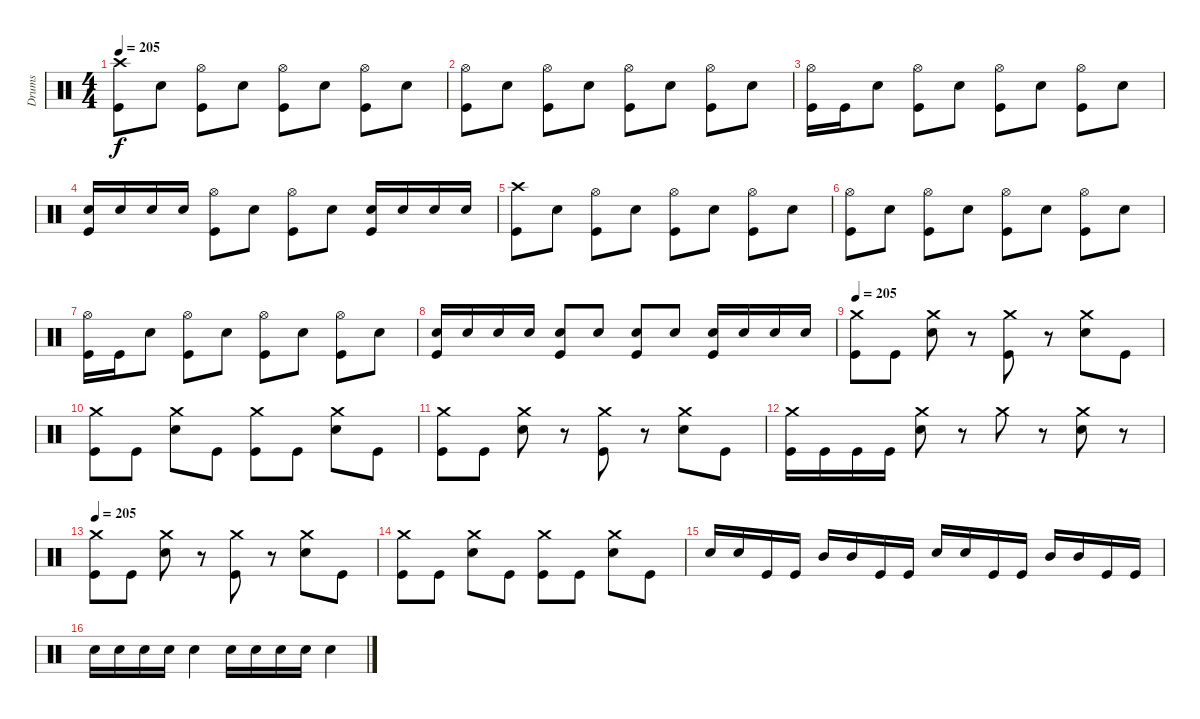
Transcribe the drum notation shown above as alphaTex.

\track ("Drums" "Drums") {instrument percussion}
\staff {score}
\articulation defaults
\ts (4 4)
\tempo 200
\tempo 205
\clef neutral
\ks c
("Crash high (hit)" "Kick (hit)").8{dy f} "Electric Snare (hit)".8 ("Hi-Hat (open)" "Kick (hit)").8 "Electric Snare (hit)".8 ("Hi-Hat (open)" "Kick (hit)").8 "Electric Snare (hit)".8 ("Hi-Hat (open)" "Kick (hit)").8 "Electric Snare (hit)".8 |
("Hi-Hat (open)" "Kick (hit)").8 "Electric Snare (hit)".8 ("Hi-Hat (open)" "Kick (hit)").8 "Electric Snare (hit)".8 ("Hi-Hat (open)" "Kick (hit)").8 "Electric Snare (hit)".8 ("Hi-Hat (open)" "Kick (hit)").8 "Electric Snare (hit)".8 |
("Hi-Hat (open)" "Kick (hit)").16 "Kick (hit)".16 "Electric Snare (hit)".8 ("Hi-Hat (open)" "Kick (hit)").8 "Electric Snare (hit)".8 ("Hi-Hat (open)" "Kick (hit)").8 "Electric Snare (hit)".8 ("Hi-Hat (open)" "Kick (hit)").8 "Electric Snare (hit)".8 |
("Electric Snare (hit)" "Kick (hit)").16 "Electric Snare (hit)".16 "Electric Snare (hit)".16 "Electric Snare (hit)".16 ("Hi-Hat (open)" "Kick (hit)").8 "Electric Snare (hit)".8 ("Hi-Hat (open)" "Kick (hit)").8 "Electric Snare (hit)".8 ("Electric Snare (hit)" "Kick (hit)").16 "Electric Snare (hit)".16 "Electric Snare (hit)".16 "Electric Snare (hit)".16 |
("Crash high (hit)" "Kick (hit)").8 "Electric Snare (hit)".8 ("Hi-Hat (open)" "Kick (hit)").8 "Electric Snare (hit)".8 ("Hi-Hat (open)" "Kick (hit)").8 "Electric Snare (hit)".8 ("Hi-Hat (open)" "Kick (hit)").8 "Electric Snare (hit)".8 |
("Hi-Hat (open)" "Kick (hit)").8 "Electric Snare (hit)".8 ("Hi-Hat (open)" "Kick (hit)").8 "Electric Snare (hit)".8 ("Hi-Hat (open)" "Kick (hit)").8 "Electric Snare (hit)".8 ("Hi-Hat (open)" "Kick (hit)").8 "Electric Snare (hit)".8 |
("Hi-Hat (open)" "Kick (hit)").16 "Kick (hit)".16 "Electric Snare (hit)".8 ("Hi-Hat (open)" "Kick (hit)").8 "Electric Snare (hit)".8 ("Hi-Hat (open)" "Kick (hit)").8 "Electric Snare (hit)".8 ("Hi-Hat (open)" "Kick (hit)").8 "Electric Snare (hit)".8 |
("Electric Snare (hit)" "Kick (hit)").16 "Electric Snare (hit)".16 "Electric Snare (hit)".16 "Electric Snare (hit)".16 ("Electric Snare (hit)" "Kick (hit)").8 "Electric Snare (hit)".8 ("Electric Snare (hit)" "Kick (hit)").8 "Electric Snare (hit)".8 ("Electric Snare (hit)" "Kick (hit)").16 "Electric Snare (hit)".16 "Electric Snare (hit)".16 "Electric Snare (hit)".16 |
\tempo 205
("Crash medium (hit)" "Kick (hit)").8 "Kick (hit)".8 ("Crash medium (hit)" "Electric Snare (hit)").8 r.8 ("Crash medium (hit)" "Kick (hit)").8 r.8 ("Crash medium (hit)" "Electric Snare (hit)").8 "Kick (hit)".8 |
("Crash medium (hit)" "Kick (hit)").8 "Kick (hit)".8 ("Crash medium (hit)" "Electric Snare (hit)").8 "Kick (hit)".8 ("Crash medium (hit)" "Kick (hit)").8 "Kick (hit)".8 ("Crash medium (hit)" "Electric Snare (hit)").8 "Kick (hit)".8 |
("Crash medium (hit)" "Kick (hit)").8 "Kick (hit)".8 ("Crash medium (hit)" "Electric Snare (hit)").8 r.8 ("Crash medium (hit)" "Kick (hit)").8 r.8 ("Crash medium (hit)" "Electric Snare (hit)").8 "Kick (hit)".8 |
("Crash medium (hit)" "Kick (hit)").16 "Kick (hit)".16 "Kick (hit)".16 "Kick (hit)".16 ("Crash medium (hit)" "Electric Snare (hit)").8 r.8 "Crash medium (hit)".8 r.8 ("Crash medium (hit)" "Electric Snare (hit)").8 r.8 |
\tempo 205
("Crash medium (hit)" "Kick (hit)").8 "Kick (hit)".8 ("Crash medium (hit)" "Electric Snare (hit)").8 r.8 ("Crash medium (hit)" "Kick (hit)").8 r.8 ("Crash medium (hit)" "Electric Snare (hit)").8 "Kick (hit)".8 |
("Crash medium (hit)" "Kick (hit)").8 "Kick (hit)".8 ("Crash medium (hit)" "Electric Snare (hit)").8 "Kick (hit)".8 ("Crash medium (hit)" "Kick (hit)").8 "Kick (hit)".8 ("Crash medium (hit)" "Electric Snare (hit)").8 "Kick (hit)".8 |
"Electric Snare (hit)".16 "Electric Snare (hit)".16 "Kick (hit)".16 "Kick (hit)".16 "Mid Tom (hit)".16 "Mid Tom (hit)".16 "Kick (hit)".16 "Kick (hit)".16 "Electric Snare (hit)".16 "Electric Snare (hit)".16 "Kick (hit)".16 "Kick (hit)".16 "Mid Tom (hit)".16 "Mid Tom (hit)".16 "Kick (hit)".16 "Kick (hit)".16 |
"Electric Snare (hit)".16 "Electric Snare (hit)".16 "Electric Snare (hit)".16 "Electric Snare (hit)".16 "Electric Snare (hit)".4 "Electric Snare (hit)".16 "Electric Snare (hit)".16 "Electric Snare (hit)".16 "Electric Snare (hit)".16 "Electric Snare (hit)".4
